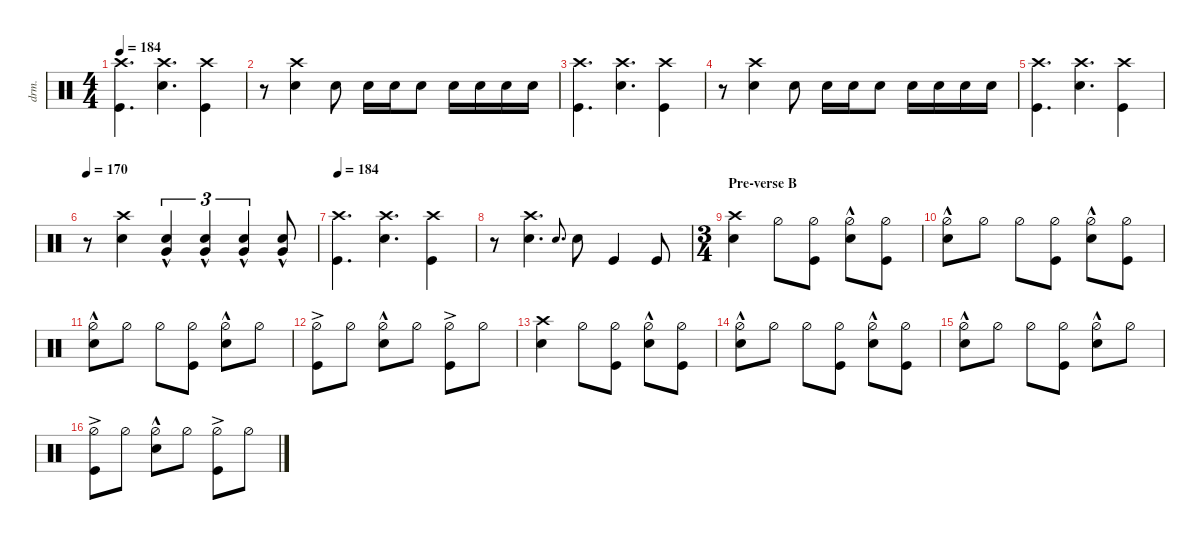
\defaultSystemsLayout 4
\hideDynamics
\bracketExtendMode nobrackets
\otherSystemsTrackNameOrientation horizontal
\track ("Drums" "drm.") {defaultSystemsLayout 4 multiBarRest instrument percussion}
\staff {score}
\articulation defaults
\ts (4 4)
\tempo 184
\clef neutral
\ks c
("Crash high (hit)" "Kick (hit)").4{d dy f} ("Snare (hit) 2" "Crash high (hit)").4{d} ("Crash high (hit)" "Kick (hit)").4 |
r.8 ("Snare (hit) 2" "Crash high (hit)").4 "Snare (hit) 2".8 "Snare (hit) 2".16 "Snare (hit) 2".16 "Snare (hit) 2".8 "Snare (hit) 2".16 "Snare (hit) 2".16 "Snare (hit) 2".16 "Snare (hit) 2".16 |
("Crash high (hit)" "Kick (hit)").4{d} ("Snare (hit) 2" "Crash high (hit)").4{d} ("Crash high (hit)" "Kick (hit)").4 |
r.8 ("Snare (hit) 2" "Crash high (hit)").4 "Snare (hit) 2".8 "Snare (hit) 2".16 "Snare (hit) 2".16 "Snare (hit) 2".8 "Snare (hit) 2".16 "Snare (hit) 2".16 "Snare (hit) 2".16 "Snare (hit) 2".16 |
("Crash high (hit)" "Kick (hit)").4{d} ("Snare (hit) 2" "Crash high (hit)").4{d} ("Crash high (hit)" "Kick (hit)").4 |
\tempo 170
r.8 ("Snare (hit) 2" "Crash high (hit)").4 ("Snare (hit) 2" "Very Low Tom (hit)"{hac}).4{tu (3 2)} ("Snare (hit) 2" "Very Low Tom (hit)"{hac}).4{tu (3 2)} ("Snare (hit) 2" "Very Low Tom (hit)"{hac}).4{tu (3 2)} ("Snare (hit) 2" "Very Low Tom (hit)"{hac}).8 |
\tempo 184
("Crash high (hit)" "Kick (hit)").4{d} ("Snare (hit) 2" "Crash high (hit)").4{d} ("Crash high (hit)" "Kick (hit)").4 |
r.8 ("Snare (hit) 2" "Crash high (hit)").4{d} "Snare (hit) 2".8{d gr onbeat} "Snare (hit) 2".8 "Kick (hit)".4 "Kick (hit)".8 |
\ts (3 4)
\beaming (8 2 2 2 2)
\section ("" "Pre-verse B")
("Snare (hit) 2" "Crash high (hit)").4 "Hi-Hat (half)".8 ("Hi-Hat (half)" "Kick (hit)").8 ("Hi-Hat (half)"{hac} "Snare (hit) 2").8 ("Hi-Hat (half)" "Kick (hit)").8 |
("Hi-Hat (half)"{hac} "Snare (hit) 2").8 "Hi-Hat (half)".8 "Hi-Hat (half)".8 ("Hi-Hat (half)" "Kick (hit)").8 ("Hi-Hat (half)"{hac} "Snare (hit) 2").8 ("Hi-Hat (half)" "Kick (hit)").8 |
("Hi-Hat (half)"{hac} "Snare (hit) 2").8 "Hi-Hat (half)".8 "Hi-Hat (half)".8 ("Hi-Hat (half)" "Kick (hit)").8 ("Hi-Hat (half)"{hac} "Snare (hit) 2").8 "Hi-Hat (half)".8 |
("Hi-Hat (half)"{ac} "Kick (hit)").8 "Hi-Hat (half)".8 ("Hi-Hat (half)"{hac} "Snare (hit) 2").8 "Hi-Hat (half)".8 ("Hi-Hat (half)"{ac} "Kick (hit)").8 "Hi-Hat (half)".8 |
("Snare (hit) 2" "Crash high (hit)").4 "Hi-Hat (half)".8 ("Hi-Hat (half)" "Kick (hit)").8 ("Hi-Hat (half)"{hac} "Snare (hit) 2").8 ("Hi-Hat (half)" "Kick (hit)").8 |
("Hi-Hat (half)"{hac} "Snare (hit) 2").8 "Hi-Hat (half)".8 "Hi-Hat (half)".8 ("Hi-Hat (half)" "Kick (hit)").8 ("Hi-Hat (half)"{hac} "Snare (hit) 2").8 ("Hi-Hat (half)" "Kick (hit)").8 |
("Hi-Hat (half)"{hac} "Snare (hit) 2").8 "Hi-Hat (half)".8 "Hi-Hat (half)".8 ("Hi-Hat (half)" "Kick (hit)").8 ("Hi-Hat (half)"{hac} "Snare (hit) 2").8 "Hi-Hat (half)".8 |
("Hi-Hat (half)"{ac} "Kick (hit)").8 "Hi-Hat (half)".8 ("Hi-Hat (half)"{hac} "Snare (hit) 2").8 "Hi-Hat (half)".8 ("Hi-Hat (half)"{ac} "Kick (hit)").8 "Hi-Hat (half)".8
